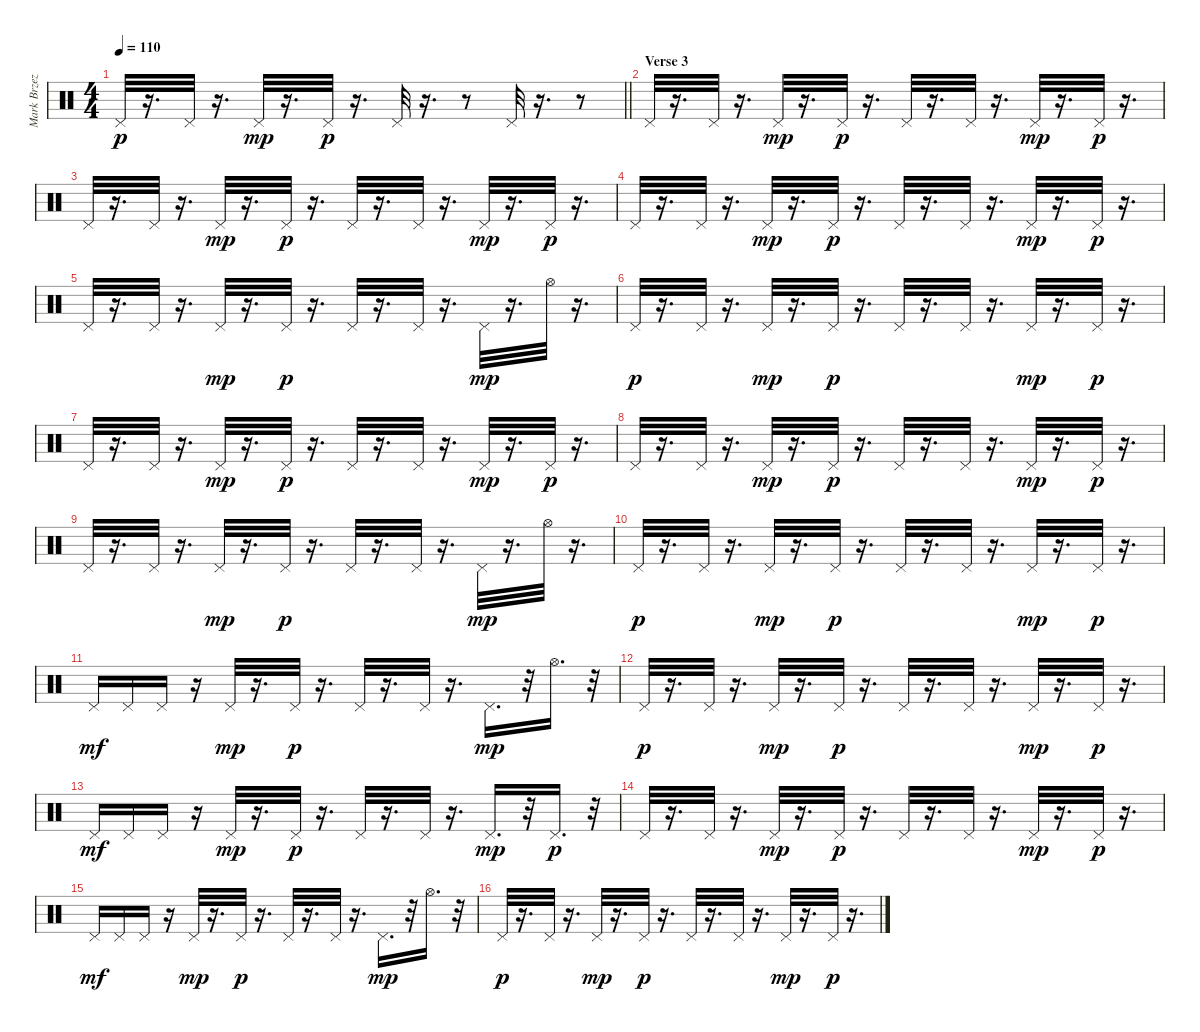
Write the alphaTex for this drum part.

\track ("Mark Brzezicki - Cymbal (Crash, Open & C" "Mark Brzez") {instrument percussion}
\staff {score}
\articulation defaults
\ts (4 4)
\tempo 110
\clef neutral
\barLineRight lightlight
\ks c "Pedal Hi-Hat (hit)".32{dy p}
r.16{d} "Pedal Hi-Hat (hit)".32 r.16{d} "Pedal Hi-Hat (hit)".32{dy mp} r.16{d} "Pedal Hi-Hat (hit)".32{dy p} r.16{d} "Pedal Hi-Hat (hit)".32 r.16{d} r.8 "Pedal Hi-Hat (hit)".32 r.16{d} r.8 |
\section ("" "Verse 3")
"Pedal Hi-Hat (hit)".32 r.16{d} "Pedal Hi-Hat (hit)".32 r.16{d} "Pedal Hi-Hat (hit)".32{dy mp} r.16{d} "Pedal Hi-Hat (hit)".32{dy p} r.16{d} "Pedal Hi-Hat (hit)".32 r.16{d} "Pedal Hi-Hat (hit)".32 r.16{d} "Pedal Hi-Hat (hit)".32{dy mp} r.16{d} "Pedal Hi-Hat (hit)".32{dy p} r.16{d} |
"Pedal Hi-Hat (hit)".32 r.16{d} "Pedal Hi-Hat (hit)".32 r.16{d} "Pedal Hi-Hat (hit)".32{dy mp} r.16{d} "Pedal Hi-Hat (hit)".32{dy p} r.16{d} "Pedal Hi-Hat (hit)".32 r.16{d} "Pedal Hi-Hat (hit)".32 r.16{d} "Pedal Hi-Hat (hit)".32{dy mp} r.16{d} "Pedal Hi-Hat (hit)".32{dy p} r.16{d} |
"Pedal Hi-Hat (hit)".32 r.16{d} "Pedal Hi-Hat (hit)".32 r.16{d} "Pedal Hi-Hat (hit)".32{dy mp} r.16{d} "Pedal Hi-Hat (hit)".32{dy p} r.16{d} "Pedal Hi-Hat (hit)".32 r.16{d} "Pedal Hi-Hat (hit)".32 r.16{d} "Pedal Hi-Hat (hit)".32{dy mp} r.16{d} "Pedal Hi-Hat (hit)".32{dy p} r.16{d} |
"Pedal Hi-Hat (hit)".32 r.16{d} "Pedal Hi-Hat (hit)".32 r.16{d} "Pedal Hi-Hat (hit)".32{dy mp} r.16{d} "Pedal Hi-Hat (hit)".32{dy p} r.16{d} "Pedal Hi-Hat (hit)".32 r.16{d} "Pedal Hi-Hat (hit)".32 r.16{d} "Pedal Hi-Hat (hit)".32{dy mp} r.16{d} "Hi-Hat (open)".32 r.16{d} |
"Pedal Hi-Hat (hit)".32{dy p} r.16{d} "Pedal Hi-Hat (hit)".32 r.16{d} "Pedal Hi-Hat (hit)".32{dy mp} r.16{d} "Pedal Hi-Hat (hit)".32{dy p} r.16{d} "Pedal Hi-Hat (hit)".32 r.16{d} "Pedal Hi-Hat (hit)".32 r.16{d} "Pedal Hi-Hat (hit)".32{dy mp} r.16{d} "Pedal Hi-Hat (hit)".32{dy p} r.16{d} |
"Pedal Hi-Hat (hit)".32 r.16{d} "Pedal Hi-Hat (hit)".32 r.16{d} "Pedal Hi-Hat (hit)".32{dy mp} r.16{d} "Pedal Hi-Hat (hit)".32{dy p} r.16{d} "Pedal Hi-Hat (hit)".32 r.16{d} "Pedal Hi-Hat (hit)".32 r.16{d} "Pedal Hi-Hat (hit)".32{dy mp} r.16{d} "Pedal Hi-Hat (hit)".32{dy p} r.16{d} |
"Pedal Hi-Hat (hit)".32 r.16{d} "Pedal Hi-Hat (hit)".32 r.16{d} "Pedal Hi-Hat (hit)".32{dy mp} r.16{d} "Pedal Hi-Hat (hit)".32{dy p} r.16{d} "Pedal Hi-Hat (hit)".32 r.16{d} "Pedal Hi-Hat (hit)".32 r.16{d} "Pedal Hi-Hat (hit)".32{dy mp} r.16{d} "Pedal Hi-Hat (hit)".32{dy p} r.16{d} |
"Pedal Hi-Hat (hit)".32 r.16{d} "Pedal Hi-Hat (hit)".32 r.16{d} "Pedal Hi-Hat (hit)".32{dy mp} r.16{d} "Pedal Hi-Hat (hit)".32{dy p} r.16{d} "Pedal Hi-Hat (hit)".32 r.16{d} "Pedal Hi-Hat (hit)".32 r.16{d} "Pedal Hi-Hat (hit)".32{dy mp} r.16{d} "Hi-Hat (open)".32 r.16{d} |
"Pedal Hi-Hat (hit)".32{dy p} r.16{d} "Pedal Hi-Hat (hit)".32 r.16{d} "Pedal Hi-Hat (hit)".32{dy mp} r.16{d} "Pedal Hi-Hat (hit)".32{dy p} r.16{d} "Pedal Hi-Hat (hit)".32 r.16{d} "Pedal Hi-Hat (hit)".32 r.16{d} "Pedal Hi-Hat (hit)".32{dy mp} r.16{d} "Pedal Hi-Hat (hit)".32{dy p} r.16{d} |
"Pedal Hi-Hat (hit)".16{dy mf} "Pedal Hi-Hat (hit)".16 "Pedal Hi-Hat (hit)".16 r.16 "Pedal Hi-Hat (hit)".32{dy mp} r.16{d} "Pedal Hi-Hat (hit)".32{dy p} r.16{d} "Pedal Hi-Hat (hit)".32 r.16{d} "Pedal Hi-Hat (hit)".32 r.16{d} "Pedal Hi-Hat (hit)".16{d dy mp} r.32 "Hi-Hat (open)".16{d} r.32 |
"Pedal Hi-Hat (hit)".32{dy p} r.16{d} "Pedal Hi-Hat (hit)".32 r.16{d} "Pedal Hi-Hat (hit)".32{dy mp} r.16{d} "Pedal Hi-Hat (hit)".32{dy p} r.16{d} "Pedal Hi-Hat (hit)".32 r.16{d} "Pedal Hi-Hat (hit)".32 r.16{d} "Pedal Hi-Hat (hit)".32{dy mp} r.16{d} "Pedal Hi-Hat (hit)".32{dy p} r.16{d} |
"Pedal Hi-Hat (hit)".16{dy mf} "Pedal Hi-Hat (hit)".16 "Pedal Hi-Hat (hit)".16 r.16 "Pedal Hi-Hat (hit)".32{dy mp} r.16{d} "Pedal Hi-Hat (hit)".32{dy p} r.16{d} "Pedal Hi-Hat (hit)".32 r.16{d} "Pedal Hi-Hat (hit)".32 r.16{d} "Pedal Hi-Hat (hit)".16{d dy mp} r.32 "Pedal Hi-Hat (hit)".16{d dy p} r.32 |
"Pedal Hi-Hat (hit)".32 r.16{d} "Pedal Hi-Hat (hit)".32 r.16{d} "Pedal Hi-Hat (hit)".32{dy mp} r.16{d} "Pedal Hi-Hat (hit)".32{dy p} r.16{d} "Pedal Hi-Hat (hit)".32 r.16{d} "Pedal Hi-Hat (hit)".32 r.16{d} "Pedal Hi-Hat (hit)".32{dy mp} r.16{d} "Pedal Hi-Hat (hit)".32{dy p} r.16{d} |
"Pedal Hi-Hat (hit)".16{dy mf} "Pedal Hi-Hat (hit)".16 "Pedal Hi-Hat (hit)".16 r.16 "Pedal Hi-Hat (hit)".32{dy mp} r.16{d} "Pedal Hi-Hat (hit)".32{dy p} r.16{d} "Pedal Hi-Hat (hit)".32 r.16{d} "Pedal Hi-Hat (hit)".32 r.16{d} "Pedal Hi-Hat (hit)".16{d dy mp} r.32 "Hi-Hat (open)".16{d} r.32 |
"Pedal Hi-Hat (hit)".32{dy p} r.16{d} "Pedal Hi-Hat (hit)".32 r.16{d} "Pedal Hi-Hat (hit)".32{dy mp} r.16{d} "Pedal Hi-Hat (hit)".32{dy p} r.16{d} "Pedal Hi-Hat (hit)".32 r.16{d} "Pedal Hi-Hat (hit)".32 r.16{d} "Pedal Hi-Hat (hit)".32{dy mp} r.16{d} "Pedal Hi-Hat (hit)".32{dy p} r.16{d}
